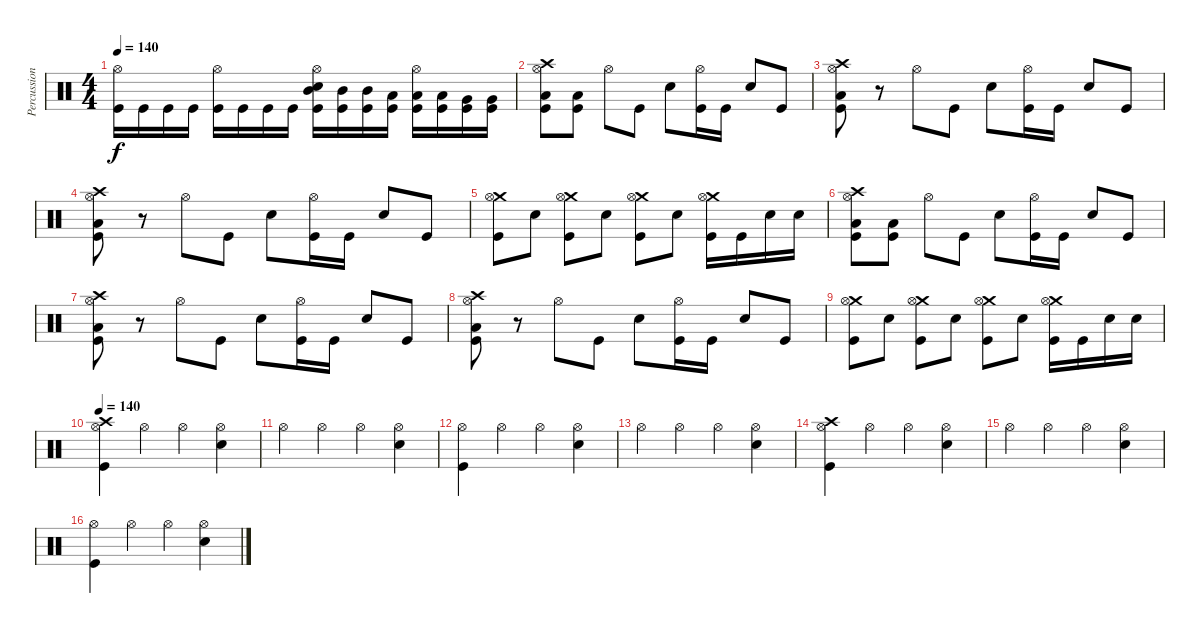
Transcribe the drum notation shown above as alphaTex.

\track ("Percussion" "Percussion") {instrument percussion}
\staff {score}
\articulation defaults
\ts (4 4)
\tempo 140
\clef neutral
\ks c
("Hi-Hat (open)" "Kick (hit)").16{dy f} "Kick (hit)".16 "Kick (hit)".16 "Kick (hit)".16 ("Hi-Hat (open)" "Kick (hit)").16 "Kick (hit)".16 "Kick (hit)".16 "Kick (hit)".16 ("Mid Tom (hit)" "Hi-Hat (open)" "Electric Snare (hit)" "Kick (hit)").16 ("Mid Tom (hit)" "Kick (hit)").16 ("Mid Tom (hit)" "Kick (hit)").16 ("Low Tom (hit)" "Kick (hit)").16 ("Low Tom (hit)" "Hi-Hat (open)" "Kick (hit)").16 ("Low Tom (hit)" "Kick (hit)").16 ("Very Low Tom (hit)" "Kick (hit)").16 ("Very Low Tom (hit)" "Kick (hit)").16 |
("Crash high (hit)" "Hi-Hat (open)" "Low Floor Tom (hit)" "Kick (hit)").8 ("Low Floor Tom (hit)" "Kick (hit)").8 "Hi-Hat (open)".8 "Kick (hit)".8 "Electric Snare (hit)".8 ("Hi-Hat (open)" "Kick (hit)").16 "Kick (hit)".16 "Electric Snare (hit)".8 "Kick (hit)".8 |
("Crash high (hit)" "Hi-Hat (open)" "Low Floor Tom (hit)" "Kick (hit)").8 r.8 "Hi-Hat (open)".8 "Kick (hit)".8 "Electric Snare (hit)".8 ("Hi-Hat (open)" "Kick (hit)").16 "Kick (hit)".16 "Electric Snare (hit)".8 "Kick (hit)".8 |
("Crash high (hit)" "Hi-Hat (open)" "Low Floor Tom (hit)" "Kick (hit)").8 r.8 "Hi-Hat (open)".8 "Kick (hit)".8 "Electric Snare (hit)".8 ("Hi-Hat (open)" "Kick (hit)").16 "Kick (hit)".16 "Electric Snare (hit)".8 "Kick (hit)".8 |
("Crash medium (hit)" "Hi-Hat (open)" "Kick (hit)").8 "Electric Snare (hit)".8 ("Crash medium (hit)" "Hi-Hat (open)" "Kick (hit)").8 "Electric Snare (hit)".8 ("Crash medium (hit)" "Hi-Hat (open)" "Kick (hit)").8 "Electric Snare (hit)".8 ("Crash medium (hit)" "Hi-Hat (open)" "Kick (hit)").16 "Kick (hit)".16 "Electric Snare (hit)".16 "Electric Snare (hit)".16 |
("Crash high (hit)" "Hi-Hat (open)" "Low Floor Tom (hit)" "Kick (hit)").8 ("Low Floor Tom (hit)" "Kick (hit)").8 "Hi-Hat (open)".8 "Kick (hit)".8 "Electric Snare (hit)".8 ("Hi-Hat (open)" "Kick (hit)").16 "Kick (hit)".16 "Electric Snare (hit)".8 "Kick (hit)".8 |
("Crash high (hit)" "Hi-Hat (open)" "Low Floor Tom (hit)" "Kick (hit)").8 r.8 "Hi-Hat (open)".8 "Kick (hit)".8 "Electric Snare (hit)".8 ("Hi-Hat (open)" "Kick (hit)").16 "Kick (hit)".16 "Electric Snare (hit)".8 "Kick (hit)".8 |
("Crash high (hit)" "Hi-Hat (open)" "Low Floor Tom (hit)" "Kick (hit)").8 r.8 "Hi-Hat (open)".8 "Kick (hit)".8 "Electric Snare (hit)".8 ("Hi-Hat (open)" "Kick (hit)").16 "Kick (hit)".16 "Electric Snare (hit)".8 "Kick (hit)".8 |
("Crash medium (hit)" "Hi-Hat (open)" "Kick (hit)").8 "Electric Snare (hit)".8 ("Crash medium (hit)" "Hi-Hat (open)" "Kick (hit)").8 "Electric Snare (hit)".8 ("Crash medium (hit)" "Hi-Hat (open)" "Kick (hit)").8 "Electric Snare (hit)".8 ("Crash medium (hit)" "Hi-Hat (open)" "Kick (hit)").16 "Kick (hit)".16 "Electric Snare (hit)".16 "Electric Snare (hit)".16 |
\tempo 140
("Kick (hit)" "Hi-Hat (open)" "Crash high (hit)").4 "Hi-Hat (open)".4 "Hi-Hat (open)".4 ("Electric Snare (hit)" "Hi-Hat (open)").4 |
"Hi-Hat (open)".4 "Hi-Hat (open)".4 "Hi-Hat (open)".4 ("Electric Snare (hit)" "Hi-Hat (open)").4 |
("Kick (hit)" "Hi-Hat (open)").4 "Hi-Hat (open)".4 "Hi-Hat (open)".4 ("Electric Snare (hit)" "Hi-Hat (open)").4 |
"Hi-Hat (open)".4 "Hi-Hat (open)".4 "Hi-Hat (open)".4 ("Electric Snare (hit)" "Hi-Hat (open)").4 |
("Kick (hit)" "Hi-Hat (open)" "Crash high (hit)").4 "Hi-Hat (open)".4 "Hi-Hat (open)".4 ("Electric Snare (hit)" "Hi-Hat (open)").4 |
"Hi-Hat (open)".4 "Hi-Hat (open)".4 "Hi-Hat (open)".4 ("Electric Snare (hit)" "Hi-Hat (open)").4 |
("Kick (hit)" "Hi-Hat (open)").4 "Hi-Hat (open)".4 "Hi-Hat (open)".4 ("Electric Snare (hit)" "Hi-Hat (open)").4
